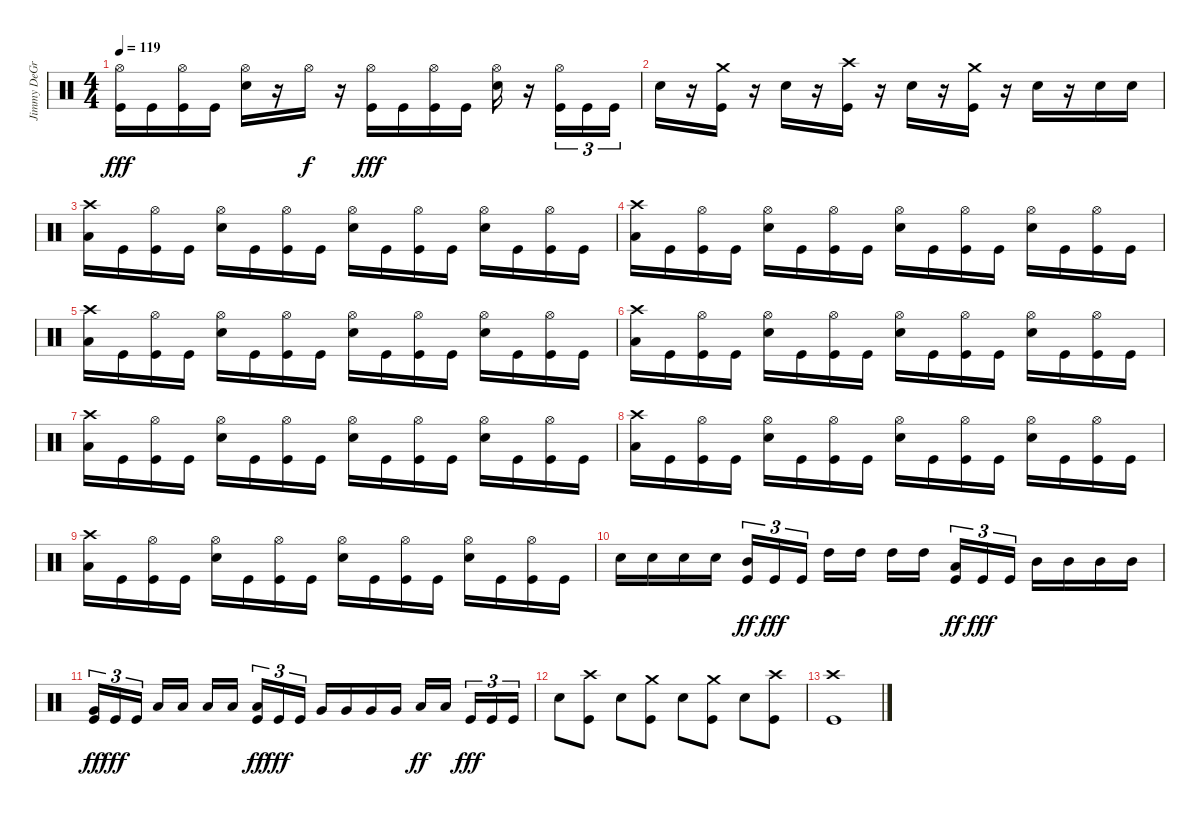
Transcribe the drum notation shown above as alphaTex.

\track ("Jimmy DeGrasso" "Jimmy DeGr") {instrument percussion}
\staff {score}
\articulation defaults
\ts (4 4)
\tempo 119
\clef neutral
\ks c
("Kick (hit)" "Hi-Hat (open)").16{dy fff} "Kick (hit)".16 ("Kick (hit)" "Hi-Hat (open)").16 "Kick (hit)".16 ("Electric Snare (hit)" "Hi-Hat (open)").16 r.16 "Hi-Hat (open)".16{dy f} r.16 ("Kick (hit)" "Hi-Hat (open)").16{dy fff} "Kick (hit)".16 ("Kick (hit)" "Hi-Hat (open)").16 "Kick (hit)".16 ("Electric Snare (hit)" "Hi-Hat (open)").16 r.16 ("Kick (hit)" "Hi-Hat (open)").16{tu (3 2)} "Kick (hit)".16{tu (3 2)} "Kick (hit)".16{tu (3 2)} |
"Electric Snare (hit)".16 r.16 ("Kick (hit)" "Crash medium (hit)").16 r.16 "Electric Snare (hit)".16 r.16 ("Kick (hit)" "Crash high (hit)").16 r.16 "Electric Snare (hit)".16 r.16 ("Kick (hit)" "Crash medium (hit)").16 r.16 "Electric Snare (hit)".16 r.16 "Electric Snare (hit)".16 "Electric Snare (hit)".16 |
("Low Floor Tom (hit)" "Crash high (hit)").16 "Kick (hit)".16 ("Kick (hit)" "Hi-Hat (open)").16 "Kick (hit)".16 ("Electric Snare (hit)" "Hi-Hat (open)").16 "Kick (hit)".16 ("Kick (hit)" "Hi-Hat (open)").16 "Kick (hit)".16 ("Electric Snare (hit)" "Hi-Hat (open)").16 "Kick (hit)".16 ("Kick (hit)" "Hi-Hat (open)").16 "Kick (hit)".16 ("Electric Snare (hit)" "Hi-Hat (open)").16 "Kick (hit)".16 ("Kick (hit)" "Hi-Hat (open)").16 "Kick (hit)".16 |
("Low Floor Tom (hit)" "Crash high (hit)").16 "Kick (hit)".16 ("Kick (hit)" "Hi-Hat (open)").16 "Kick (hit)".16 ("Electric Snare (hit)" "Hi-Hat (open)").16 "Kick (hit)".16 ("Kick (hit)" "Hi-Hat (open)").16 "Kick (hit)".16 ("Electric Snare (hit)" "Hi-Hat (open)").16 "Kick (hit)".16 ("Kick (hit)" "Hi-Hat (open)").16 "Kick (hit)".16 ("Electric Snare (hit)" "Hi-Hat (open)").16 "Kick (hit)".16 ("Kick (hit)" "Hi-Hat (open)").16 "Kick (hit)".16 |
("Low Floor Tom (hit)" "Crash high (hit)").16 "Kick (hit)".16 ("Kick (hit)" "Hi-Hat (open)").16 "Kick (hit)".16 ("Electric Snare (hit)" "Hi-Hat (open)").16 "Kick (hit)".16 ("Kick (hit)" "Hi-Hat (open)").16 "Kick (hit)".16 ("Electric Snare (hit)" "Hi-Hat (open)").16 "Kick (hit)".16 ("Kick (hit)" "Hi-Hat (open)").16 "Kick (hit)".16 ("Electric Snare (hit)" "Hi-Hat (open)").16 "Kick (hit)".16 ("Kick (hit)" "Hi-Hat (open)").16 "Kick (hit)".16 |
("Low Floor Tom (hit)" "Crash high (hit)").16 "Kick (hit)".16 ("Kick (hit)" "Hi-Hat (open)").16 "Kick (hit)".16 ("Electric Snare (hit)" "Hi-Hat (open)").16 "Kick (hit)".16 ("Kick (hit)" "Hi-Hat (open)").16 "Kick (hit)".16 ("Electric Snare (hit)" "Hi-Hat (open)").16 "Kick (hit)".16 ("Kick (hit)" "Hi-Hat (open)").16 "Kick (hit)".16 ("Electric Snare (hit)" "Hi-Hat (open)").16 "Kick (hit)".16 ("Kick (hit)" "Hi-Hat (open)").16 "Kick (hit)".16 |
("Low Floor Tom (hit)" "Crash high (hit)").16 "Kick (hit)".16 ("Kick (hit)" "Hi-Hat (open)").16 "Kick (hit)".16 ("Electric Snare (hit)" "Hi-Hat (open)").16 "Kick (hit)".16 ("Kick (hit)" "Hi-Hat (open)").16 "Kick (hit)".16 ("Electric Snare (hit)" "Hi-Hat (open)").16 "Kick (hit)".16 ("Kick (hit)" "Hi-Hat (open)").16 "Kick (hit)".16 ("Electric Snare (hit)" "Hi-Hat (open)").16 "Kick (hit)".16 ("Kick (hit)" "Hi-Hat (open)").16 "Kick (hit)".16 |
("Low Floor Tom (hit)" "Crash high (hit)").16 "Kick (hit)".16 ("Kick (hit)" "Hi-Hat (open)").16 "Kick (hit)".16 ("Electric Snare (hit)" "Hi-Hat (open)").16 "Kick (hit)".16 ("Kick (hit)" "Hi-Hat (open)").16 "Kick (hit)".16 ("Electric Snare (hit)" "Hi-Hat (open)").16 "Kick (hit)".16 ("Kick (hit)" "Hi-Hat (open)").16 "Kick (hit)".16 ("Electric Snare (hit)" "Hi-Hat (open)").16 "Kick (hit)".16 ("Kick (hit)" "Hi-Hat (open)").16 "Kick (hit)".16 |
("Low Floor Tom (hit)" "Crash high (hit)").16 "Kick (hit)".16 ("Kick (hit)" "Hi-Hat (open)").16 "Kick (hit)".16 ("Electric Snare (hit)" "Hi-Hat (open)").16 "Kick (hit)".16 ("Kick (hit)" "Hi-Hat (open)").16 "Kick (hit)".16 ("Electric Snare (hit)" "Hi-Hat (open)").16 "Kick (hit)".16 ("Kick (hit)" "Hi-Hat (open)").16 "Kick (hit)".16 ("Electric Snare (hit)" "Hi-Hat (open)").16 "Kick (hit)".16 ("Kick (hit)" "Hi-Hat (open)").16 "Kick (hit)".16 |
"Electric Snare (hit)".16 "Electric Snare (hit)".16 "Electric Snare (hit)".16 "Electric Snare (hit)".16 ("Kick (hit)" "Mid Tom (hit)").16{tu (3 2) dy ff} "Kick (hit)".16{tu (3 2) dy fff} "Kick (hit)".16{tu (3 2)} "High Tom (hit)".16 "High Tom (hit)".16 "High Tom (hit)".16 "High Tom (hit)".16 ("Kick (hit)" "Low Tom (hit)").16{tu (3 2) dy ff} "Kick (hit)".16{tu (3 2) dy fff} "Kick (hit)".16{tu (3 2)} "Mid Tom (hit)".16 "Mid Tom (hit)".16 "Mid Tom (hit)".16 "Mid Tom (hit)".16 |
("Kick (hit)" "Very Low Tom (hit)").16{tu (3 2) dy ff} "Kick (hit)".16{tu (3 2) dy fff} "Kick (hit)".16{tu (3 2)} "Low Tom (hit)".16 "Low Tom (hit)".16 "Low Tom (hit)".16 "Low Tom (hit)".16 ("Kick (hit)" "Low Floor Tom (hit)").16{tu (3 2) dy ff} "Kick (hit)".16{tu (3 2) dy fff} "Kick (hit)".16{tu (3 2)} "Very Low Tom (hit)".16 "Very Low Tom (hit)".16 "Very Low Tom (hit)".16 "Very Low Tom (hit)".16 "Low Floor Tom (hit)".16{dy ff} "Low Floor Tom (hit)".16 "Kick (hit)".16{tu (3 2) dy fff} "Kick (hit)".16{tu (3 2)} "Kick (hit)".16{tu (3 2)} |
"Electric Snare (hit)".8 ("Kick (hit)" "Crash high (hit)").8 "Electric Snare (hit)".8 ("Kick (hit)" "Crash medium (hit)").8 "Electric Snare (hit)".8 ("Kick (hit)" "Crash medium (hit)").8 "Electric Snare (hit)".8 ("Kick (hit)" "Crash high (hit)").8 |
("Kick (hit)" "Crash high (hit)").1
